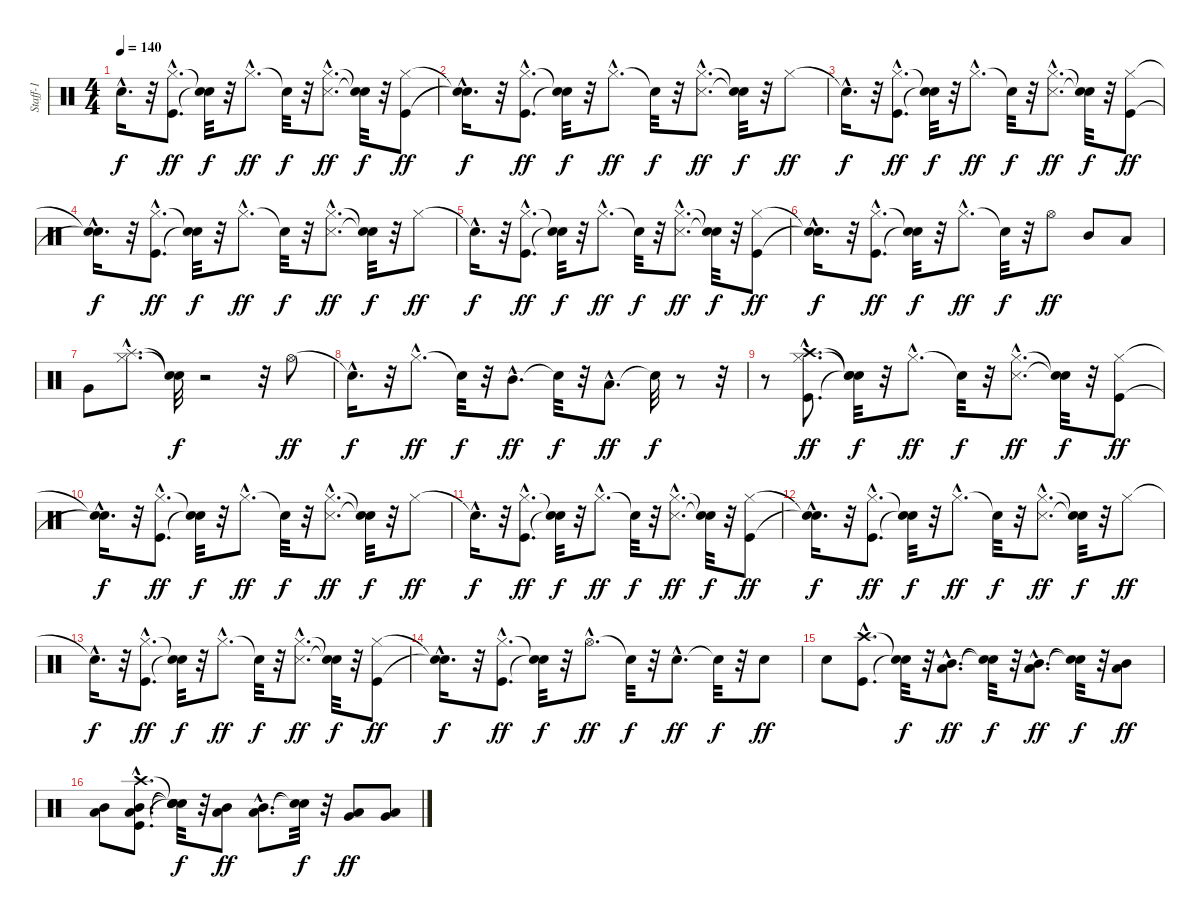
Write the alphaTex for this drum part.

\track ("Staff-1" "Staff-1") {instrument percussion}
\staff {score}
\articulation defaults
\ts (4 4)
\tempo 140
\clef neutral
\ks c "Snare (hit)"{hac t}.16{d dy f}
r.32 ("Kick (hit)"{hac} "Hi-Hat (closed)"{hac}).8{d dy ff} ("Snare (hit)"{t} "Snare (hit)"{t}).32{dy f} r.32 "Hi-Hat (closed)"{hac}.8{d dy ff} "Snare (hit)"{t}.32{dy f} r.32 ("Snare (side stick) 3"{hac} "Hi-Hat (closed)"{hac}).8{d dy ff} ("Snare (hit)"{t} "Snare (hit)"{t}).32{dy f} r.32 ("Kick (hit)" "Hi-Hat (closed)").8{dy ff} |
("Snare (hit)"{hac t} "Snare (hit)"{hac t}).16{d dy f} r.32 ("Kick (hit)"{hac} "Hi-Hat (closed)"{hac}).8{d dy ff} ("Snare (hit)"{t} "Snare (hit)"{t}).32{dy f} r.32 "Hi-Hat (closed)"{hac}.8{d dy ff} "Snare (hit)"{t}.32{dy f} r.32 ("Snare (side stick) 3"{hac} "Hi-Hat (closed)"{hac}).8{d dy ff} ("Snare (hit)"{t} "Snare (hit)"{t}).32{dy f} r.32 "Hi-Hat (closed)".8{dy ff} |
"Snare (hit)"{hac t}.16{d dy f} r.32 ("Kick (hit)"{hac} "Hi-Hat (closed)"{hac}).8{d dy ff} ("Snare (hit)"{t} "Snare (hit)"{t}).32{dy f} r.32 "Hi-Hat (closed)"{hac}.8{d dy ff} "Snare (hit)"{t}.32{dy f} r.32 ("Snare (side stick) 3"{hac} "Hi-Hat (closed)"{hac}).8{d dy ff} ("Snare (hit)"{t} "Snare (hit)"{t}).32{dy f} r.32 ("Kick (hit)" "Hi-Hat (closed)").8{dy ff} |
("Snare (hit)"{hac t} "Snare (hit)"{hac t}).16{d dy f} r.32 ("Kick (hit)"{hac} "Hi-Hat (closed)"{hac}).8{d dy ff} ("Snare (hit)"{t} "Snare (hit)"{t}).32{dy f} r.32 "Hi-Hat (closed)"{hac}.8{d dy ff} "Snare (hit)"{t}.32{dy f} r.32 ("Snare (side stick) 3"{hac} "Hi-Hat (closed)"{hac}).8{d dy ff} ("Snare (hit)"{t} "Snare (hit)"{t}).32{dy f} r.32 "Hi-Hat (closed)".8{dy ff} |
"Snare (hit)"{hac t}.16{d dy f} r.32 ("Kick (hit)"{hac} "Hi-Hat (closed)"{hac}).8{d dy ff} ("Snare (hit)"{t} "Snare (hit)"{t}).32{dy f} r.32 "Hi-Hat (closed)"{hac}.8{d dy ff} "Snare (hit)"{t}.32{dy f} r.32 ("Snare (side stick) 3"{hac} "Hi-Hat (closed)"{hac}).8{d dy ff} ("Snare (hit)"{t} "Snare (hit)"{t}).32{dy f} r.32 ("Kick (hit)" "Hi-Hat (closed)").8{dy ff} |
("Snare (hit)"{hac t} "Snare (hit)"{hac t}).16{d dy f} r.32 ("Kick (hit)"{hac} "Hi-Hat (closed)"{hac}).8{d dy ff} ("Snare (hit)"{t} "Snare (hit)"{t}).32{dy f} r.32 "Hi-Hat (closed)"{hac}.8{d dy ff} "Snare (hit)"{t}.32{dy f} r.32 "Hi-Hat (open)".8{dy ff} "Mid Tom (hit)".8{volume 8} "Low Tom (hit)".8 |
"Very Low Tom (hit)".8 ("Hi-Hat (closed)"{hac} "Splash (hit)"{hac}).8{d} ("Snare (hit)"{t} "Snare (hit)"{t}).32{dy f} r.2 r.32 "Hi-Hat (open)".8{dy ff volume 16} |
"Snare (hit)"{hac t}.16{d dy f} r.32 "Hi-Hat (closed)"{hac}.8{d dy ff volume 8} "Snare (hit)"{t}.32{dy f} r.32 "Mid Tom (hit)"{hac}.8{d dy ff volume 16} "Snare (hit)"{t}.32{dy f} r.32 "Low Tom (hit)"{hac}.8{d dy ff} "Snare (hit)"{t}.32{dy f} r.8 r.32 |
r.8 ("Kick (hit)"{hac} "Hi-Hat (closed)"{hac} "Crash high (hit)"{hac}).8{d dy ff volume 12} ("Snare (hit)"{t} "Snare (hit)"{t} "Snare (hit)"{t}).32{dy f} r.32 "Hi-Hat (closed)"{hac}.8{d dy ff} "Snare (hit)"{t}.32{dy f} r.32 ("Snare (side stick) 3"{hac} "Hi-Hat (closed)"{hac}).8{d dy ff volume 16} ("Snare (hit)"{t} "Snare (hit)"{t}).32{dy f} r.32 ("Kick (hit)" "Hi-Hat (closed)").8{dy ff} |
("Snare (hit)"{hac t} "Snare (hit)"{hac t}).16{d dy f} r.32 ("Kick (hit)"{hac} "Hi-Hat (closed)"{hac}).8{d dy ff} ("Snare (hit)"{t} "Snare (hit)"{t}).32{dy f} r.32 "Hi-Hat (closed)"{hac}.8{d dy ff} "Snare (hit)"{t}.32{dy f} r.32 ("Snare (side stick) 3"{hac} "Hi-Hat (closed)"{hac}).8{d dy ff} ("Snare (hit)"{t} "Snare (hit)"{t}).32{dy f} r.32 "Hi-Hat (closed)".8{dy ff} |
"Snare (hit)"{hac t}.16{d dy f} r.32 ("Kick (hit)"{hac} "Hi-Hat (closed)"{hac}).8{d dy ff} ("Snare (hit)"{t} "Snare (hit)"{t}).32{dy f} r.32 "Hi-Hat (closed)"{hac}.8{d dy ff} "Snare (hit)"{t}.32{dy f} r.32 ("Snare (side stick) 3"{hac} "Hi-Hat (closed)"{hac}).8{d dy ff} ("Snare (hit)"{t} "Snare (hit)"{t}).32{dy f} r.32 ("Kick (hit)" "Hi-Hat (closed)").8{dy ff} |
("Snare (hit)"{hac t} "Snare (hit)"{hac t}).16{d dy f} r.32 ("Kick (hit)"{hac} "Hi-Hat (closed)"{hac}).8{d dy ff} ("Snare (hit)"{t} "Snare (hit)"{t}).32{dy f} r.32 "Hi-Hat (closed)"{hac}.8{d dy ff} "Snare (hit)"{t}.32{dy f} r.32 ("Snare (side stick) 3"{hac} "Hi-Hat (closed)"{hac}).8{d dy ff} ("Snare (hit)"{t} "Snare (hit)"{t}).32{dy f} r.32 "Hi-Hat (closed)".8{dy ff} |
"Snare (hit)"{hac t}.16{d dy f} r.32 ("Kick (hit)"{hac} "Hi-Hat (closed)"{hac}).8{d dy ff} ("Snare (hit)"{t} "Snare (hit)"{t}).32{dy f} r.32 "Hi-Hat (closed)"{hac}.8{d dy ff} "Snare (hit)"{t}.32{dy f} r.32 ("Snare (side stick) 3"{hac} "Hi-Hat (closed)"{hac}).8{d dy ff} ("Snare (hit)"{t} "Snare (hit)"{t}).32{dy f} r.32 ("Kick (hit)" "Hi-Hat (closed)").8{dy ff} |
("Snare (hit)"{hac t} "Snare (hit)"{hac t}).16{d dy f} r.32 ("Kick (hit)"{hac} "Hi-Hat (closed)"{hac}).8{d dy ff} ("Snare (hit)"{t} "Snare (hit)"{t}).32{dy f} r.32 "Hi-Hat (open)"{hac}.8{d dy ff} "Snare (hit)"{t}.32{dy f} r.32 "Snare (hit) 2"{hac}.8{d dy ff} "Snare (hit)"{t}.32{dy f} r.32 "Snare (hit) 2".8{dy ff} |
"Snare (hit) 2".8 ("Kick (hit)"{hac} "Crash high (hit)"{hac}).8{d} ("Snare (hit)"{t} "Snare (hit)"{t}).32{dy f} r.32 ("Low Tom (hit)"{hac} "Mid Tom (hit)"{hac}).8{d dy ff volume 8} ("Snare (hit)"{t} "Snare (hit)"{t}).32{dy f} r.32 ("Low Tom (hit)"{hac} "Mid Tom (hit)"{hac}).8{d dy ff volume 10} ("Snare (hit)"{t} "Snare (hit)"{t}).32{dy f} r.32 ("Low Tom (hit)" "Mid Tom (hit)").8{dy ff volume 12} |
("Low Tom (hit)" "Mid Tom (hit)").8{volume 13} ("Kick (hit)"{hac} "Low Tom (hit)"{hac} "Mid Tom (hit)"{hac} "Crash high (hit)"{hac}).8{d volume 14} ("Snare (hit)"{t} "Snare (hit)"{t} "Snare (hit)"{t} "Snare (hit)"{t}).32{dy f} r.32 ("Low Tom (hit)" "Mid Tom (hit)").8{dy ff volume 16} ("Low Tom (hit)"{hac} "Mid Tom (hit)"{hac}).8{d} ("Snare (hit)"{t} "Snare (hit)"{t}).32{dy f} r.32 ("Very Low Tom (hit)" "Low Tom (hit)").8{dy ff} ("Low Floor Tom (hit)" "Very Low Tom (hit)").8
